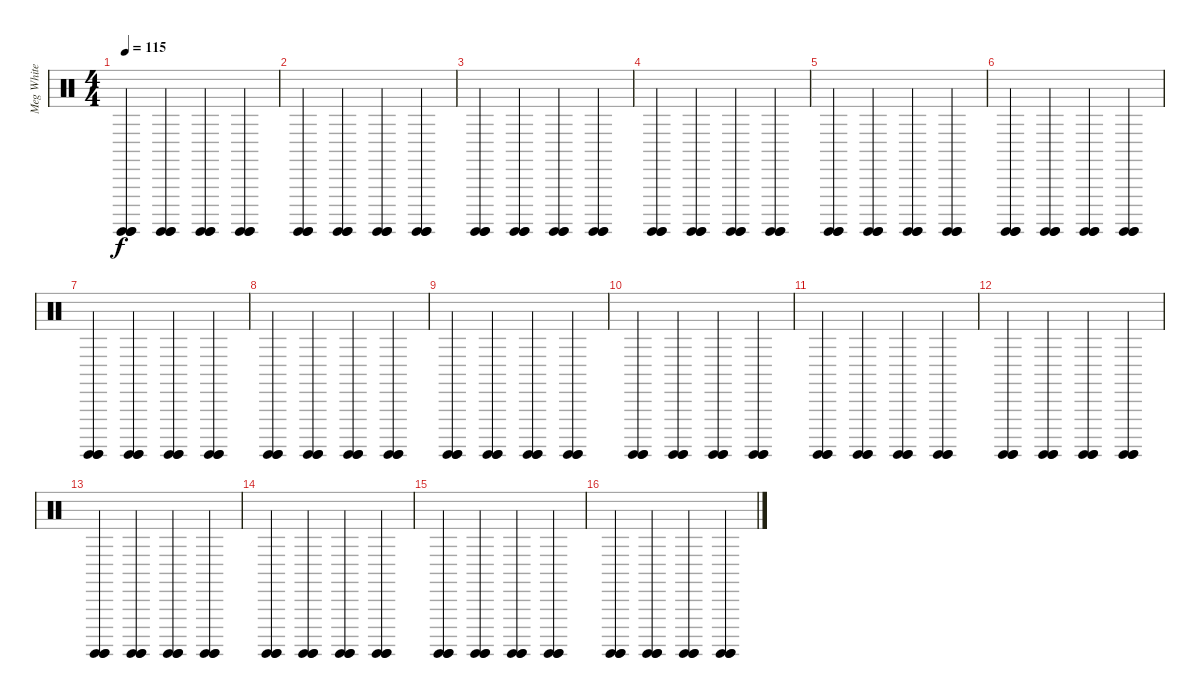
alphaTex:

\track ("Meg White" "Meg White") {instrument percussion}
\staff {score}
\articulation defaults
\ts (4 4)
\tempo 115
\clef neutral
\ks c
("Surdo (hit)" "Surdo (hit)" "Surdo (hit)").4{dy f} ("Surdo (hit)" "Surdo (hit)" "Surdo (hit)").4 ("Surdo (hit)" "Surdo (hit)" "Surdo (hit)").4 ("Surdo (hit)" "Surdo (hit)" "Surdo (hit)").4 |
("Surdo (hit)" "Surdo (hit)" "Surdo (hit)").4 ("Surdo (hit)" "Surdo (hit)" "Surdo (hit)").4 ("Surdo (hit)" "Surdo (hit)" "Surdo (hit)").4 ("Surdo (hit)" "Surdo (hit)" "Surdo (hit)").4 |
("Surdo (hit)" "Surdo (hit)" "Surdo (hit)").4 ("Surdo (hit)" "Surdo (hit)" "Surdo (hit)").4 ("Surdo (hit)" "Surdo (hit)" "Surdo (hit)").4 ("Surdo (hit)" "Surdo (hit)" "Surdo (hit)").4 |
("Surdo (hit)" "Surdo (hit)" "Surdo (hit)").4 ("Surdo (hit)" "Surdo (hit)" "Surdo (hit)").4 ("Surdo (hit)" "Surdo (hit)" "Surdo (hit)").4 ("Surdo (hit)" "Surdo (hit)" "Surdo (hit)").4 |
("Surdo (hit)" "Surdo (hit)" "Surdo (hit)").4 ("Surdo (hit)" "Surdo (hit)" "Surdo (hit)").4 ("Surdo (hit)" "Surdo (hit)" "Surdo (hit)").4 ("Surdo (hit)" "Surdo (hit)" "Surdo (hit)").4 |
("Surdo (hit)" "Surdo (hit)" "Surdo (hit)").4 ("Surdo (hit)" "Surdo (hit)" "Surdo (hit)").4 ("Surdo (hit)" "Surdo (hit)" "Surdo (hit)").4 ("Surdo (hit)" "Surdo (hit)" "Surdo (hit)").4 |
("Surdo (hit)" "Surdo (hit)" "Surdo (hit)").4 ("Surdo (hit)" "Surdo (hit)" "Surdo (hit)").4 ("Surdo (hit)" "Surdo (hit)" "Surdo (hit)").4 ("Surdo (hit)" "Surdo (hit)" "Surdo (hit)").4 |
("Surdo (hit)" "Surdo (hit)" "Surdo (hit)").4 ("Surdo (hit)" "Surdo (hit)" "Surdo (hit)").4 ("Surdo (hit)" "Surdo (hit)" "Surdo (hit)").4 ("Surdo (hit)" "Surdo (hit)" "Surdo (hit)").4 |
("Surdo (hit)" "Surdo (hit)" "Surdo (hit)").4 ("Surdo (hit)" "Surdo (hit)" "Surdo (hit)").4 ("Surdo (hit)" "Surdo (hit)" "Surdo (hit)").4 ("Surdo (hit)" "Surdo (hit)" "Surdo (hit)").4 |
("Surdo (hit)" "Surdo (hit)" "Surdo (hit)").4 ("Surdo (hit)" "Surdo (hit)" "Surdo (hit)").4 ("Surdo (hit)" "Surdo (hit)" "Surdo (hit)").4 ("Surdo (hit)" "Surdo (hit)" "Surdo (hit)").4 |
("Surdo (hit)" "Surdo (hit)" "Surdo (hit)").4 ("Surdo (hit)" "Surdo (hit)" "Surdo (hit)").4 ("Surdo (hit)" "Surdo (hit)" "Surdo (hit)").4 ("Surdo (hit)" "Surdo (hit)" "Surdo (hit)").4 |
("Surdo (hit)" "Surdo (hit)" "Surdo (hit)").4 ("Surdo (hit)" "Surdo (hit)" "Surdo (hit)").4 ("Surdo (hit)" "Surdo (hit)" "Surdo (hit)").4 ("Surdo (hit)" "Surdo (hit)" "Surdo (hit)").4 |
("Surdo (hit)" "Surdo (hit)" "Surdo (hit)").4 ("Surdo (hit)" "Surdo (hit)" "Surdo (hit)").4 ("Surdo (hit)" "Surdo (hit)" "Surdo (hit)").4 ("Surdo (hit)" "Surdo (hit)" "Surdo (hit)").4 |
("Surdo (hit)" "Surdo (hit)" "Surdo (hit)").4 ("Surdo (hit)" "Surdo (hit)" "Surdo (hit)").4 ("Surdo (hit)" "Surdo (hit)" "Surdo (hit)").4 ("Surdo (hit)" "Surdo (hit)" "Surdo (hit)").4 |
("Surdo (hit)" "Surdo (hit)" "Surdo (hit)").4 ("Surdo (hit)" "Surdo (hit)" "Surdo (hit)").4 ("Surdo (hit)" "Surdo (hit)" "Surdo (hit)").4 ("Surdo (hit)" "Surdo (hit)" "Surdo (hit)").4 |
("Surdo (hit)" "Surdo (hit)" "Surdo (hit)").4 ("Surdo (hit)" "Surdo (hit)" "Surdo (hit)").4 ("Surdo (hit)" "Surdo (hit)" "Surdo (hit)").4 ("Surdo (hit)" "Surdo (hit)" "Surdo (hit)").4
